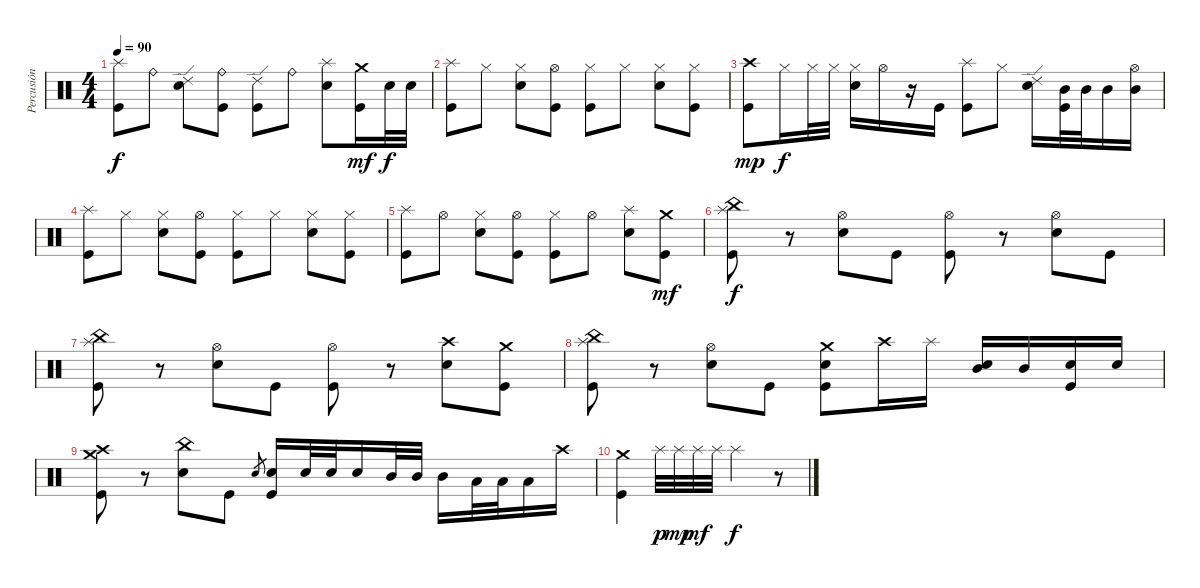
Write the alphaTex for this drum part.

\track ("Percusión" "Percusión") {instrument percussion}
\staff {score}
\articulation defaults
\ts (4 4)
\tempo 90
\clef neutral
\ks c
("Splash (hit)" "Kick (hit)").8{dy f} "Ride (bell)".8 ("Ride (edge) 2" "Electric Snare (hit)").8 ("Ride (bell)" "Kick (hit)").8 ("Ride (edge) 2" "Kick (hit)").8 "Ride (bell)".8 ("Splash (hit)" "Electric Snare (hit)").8 ("Crash medium (hit)" "Kick (hit)").16{dy mf} "Electric Snare (hit)".32{dy f} "Electric Snare (hit)".32 |
("Splash (hit)" "Kick (hit)").8 "Hi-Hat (closed)".8 ("Hi-Hat (closed)" "Electric Snare (hit)").8 ("Hi-Hat (open)" "Kick (hit)").8 ("Hi-Hat (closed)" "Kick (hit)").8 "Hi-Hat (closed)".8 ("Hi-Hat (closed)" "Electric Snare (hit)").8 ("Hi-Hat (closed)" "Kick (hit)").8 |
("Crash high (hit)" "Kick (hit)").8{dy mp} "Hi-Hat (closed)".16{dy f} "Hi-Hat (closed)".32 "Hi-Hat (closed)".32 ("Hi-Hat (closed)" "Electric Snare (hit)").16 "Hi-Hat (open)".16 r.16 "Kick (hit)".16 ("Splash (hit)" "Kick (hit)").8 "Hi-Hat (closed)".8 ("Ride (edge) 2" "Electric Snare (hit)").16 ("Mid Tom (hit)" "Kick (hit)").32 "Mid Tom (hit)".32 "Mid Tom (hit)".16 ("Hi-Hat (open)" "Mid Tom (hit)").16 |
("Splash (hit)" "Kick (hit)").8 "Hi-Hat (closed)".8 ("Hi-Hat (closed)" "Electric Snare (hit)").8 ("Hi-Hat (open)" "Kick (hit)").8 ("Hi-Hat (closed)" "Kick (hit)").8 "Hi-Hat (closed)".8 ("Hi-Hat (closed)" "Electric Snare (hit)").8 ("Hi-Hat (closed)" "Kick (hit)").8 |
("Splash (hit)" "Kick (hit)").8 "Hi-Hat (open)".8 ("Hi-Hat (closed)" "Electric Snare (hit)").8 ("Hi-Hat (open)" "Kick (hit)").8 ("Hi-Hat (closed)" "Kick (hit)").8 "Hi-Hat (open)".8 ("Splash (hit)" "Electric Snare (hit)").8 ("Crash medium (hit)" "Kick (hit)").8{dy mf} |
("Splash (hit)" "China (hit)" "Kick (hit)").8{dy f} r.8 ("Hi-Hat (open)" "Electric Snare (hit)").8 "Kick (hit)".8 ("Hi-Hat (open)" "Kick (hit)").8 r.8 ("Hi-Hat (open)" "Electric Snare (hit)").8 "Kick (hit)".8 |
("Splash (hit)" "China (hit)" "Kick (hit)").8 r.8 ("Hi-Hat (open)" "Electric Snare (hit)").8 "Kick (hit)".8 ("Hi-Hat (open)" "Kick (hit)").8 r.8 ("Crash high (hit)" "Electric Snare (hit)").8 ("Crash medium (hit)" "Kick (hit)").8 |
("Splash (hit)" "China (hit)" "Kick (hit)").8 r.8 ("Hi-Hat (open)" "Electric Snare (hit)").8 "Kick (hit)".8 ("Crash medium (hit)" "Electric Snare (hit)" "Kick (hit)").8 "Crash high (hit)".16 "Splash (hit)".16 ("Mid Tom (hit)" "Electric Snare (hit)").16 "Mid Tom (hit)".16 ("Electric Snare (hit)" "Kick (hit)").16 "Electric Snare (hit)".16 |
("Crash high (hit)" "Crash medium (hit)" "Kick (hit)").8 r.8 ("China (hit)" "Electric Snare (hit)").8 "Kick (hit)".8 "Electric Snare (hit)".8{gr} ("Electric Snare (hit)" "Kick (hit)").16 "Electric Snare (hit)".32 "Electric Snare (hit)".32 "Electric Snare (hit)".16 "Mid Tom (hit)".32 "Mid Tom (hit)".32 "Mid Tom (hit)".16 "Low Floor Tom (hit)".32 "Low Floor Tom (hit)".32 "Low Floor Tom (hit)".16 "Crash high (hit)".16 |
("Crash medium (hit)" "Kick (hit)").4 "Splash (hit)".32{dy p} "Splash (hit)".32{dy mp} "Splash (hit)".32{dy mf} "Splash (hit)".32 "Splash (hit)".2{dy f} r.8
